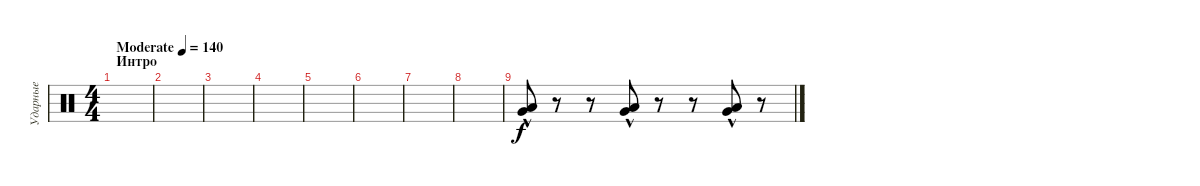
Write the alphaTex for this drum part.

\track ("Ударные" "Ударные") {instrument percussion}
\staff {score}
\articulation defaults
\ts (4 4)
\section ("" "Интро")
\tempo (140 "Moderate")
\clef neutral
\ks c
|
|
|
|
|
|
|
|
("Low Tom (hit)"{hac} "Very Low Tom (hit)"{hac}).8 r.8 r.8 ("Low Tom (hit)"{hac} "Very Low Tom (hit)"{hac}).8 r.8 r.8 ("Low Tom (hit)"{hac} "Very Low Tom (hit)"{hac}).8 r.8
